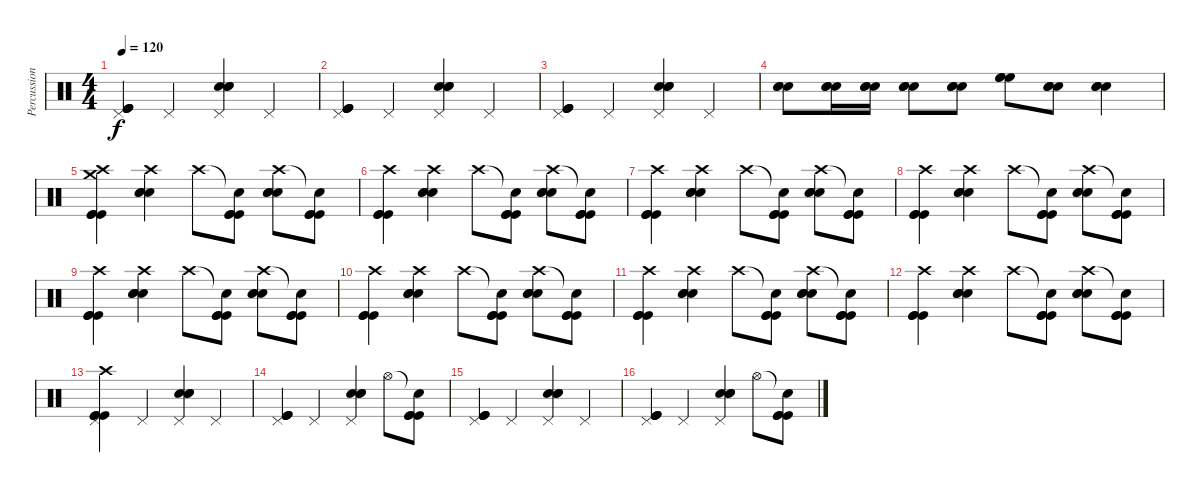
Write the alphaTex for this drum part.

\track ("Percussions" "Percussion") {instrument percussion}
\staff {score}
\articulation defaults
\ts (4 4)
\tempo 120
\clef neutral
\ks c
("Pedal Hi-Hat (hit)" "Kick (hit)" "Kick (hit)" "Kick (hit)").4{dy f} "Pedal Hi-Hat (hit)".4 ("Pedal Hi-Hat (hit)" "Snare (hit) 2" "Snare (hit) 2" "Snare (hit) 2").4 "Pedal Hi-Hat (hit)".4 |
("Pedal Hi-Hat (hit)" "Kick (hit)" "Kick (hit)" "Kick (hit)").4 "Pedal Hi-Hat (hit)".4 ("Pedal Hi-Hat (hit)" "Snare (hit) 2" "Snare (hit) 2" "Snare (hit) 2").4 "Pedal Hi-Hat (hit)".4 |
("Pedal Hi-Hat (hit)" "Kick (hit)" "Kick (hit)" "Kick (hit)").4 "Pedal Hi-Hat (hit)".4 ("Pedal Hi-Hat (hit)" "Snare (hit) 2" "Snare (hit) 2" "Snare (hit) 2").4 "Pedal Hi-Hat (hit)".4 |
("Snare (hit) 2" "Snare (hit) 2" "Snare (hit) 2").8 ("Snare (hit) 2" "Snare (hit) 2" "Snare (hit) 2").16 ("Snare (hit) 2" "Snare (hit) 2" "Snare (hit) 2").16 ("Snare (hit) 2" "Snare (hit) 2" "Snare (hit) 2").8 ("Snare (hit) 2" "Snare (hit) 2" "Snare (hit) 2").8 ("High Floor Tom (hit)" "High Floor Tom (hit)" "High Floor Tom (hit)").8 ("Snare (hit) 2" "Snare (hit) 2" "Snare (hit) 2").8 ("Snare (hit) 2" "Snare (hit) 2" "Snare (hit) 2").4 |
("Crash high (hit)" "Crash medium (hit)" "Kick (hit)" "Kick (hit)" "Kick (hit)").4 ("Crash high (hit)" "Snare (hit) 2" "Snare (hit) 2" "Snare (hit) 2").4 "Crash high (hit)".8 ("Snare (hit)"{t} "Kick (hit)" "Kick (hit)" "Kick (hit)").8 ("Crash high (hit)" "Snare (hit) 2" "Snare (hit) 2" "Snare (hit) 2").8 ("Snare (hit)"{t} "Kick (hit)" "Kick (hit)" "Kick (hit)").8 |
("Crash high (hit)" "Kick (hit)" "Kick (hit)" "Kick (hit)").4 ("Crash high (hit)" "Snare (hit) 2" "Snare (hit) 2" "Snare (hit) 2").4 "Crash high (hit)".8 ("Snare (hit)"{t} "Kick (hit)" "Kick (hit)" "Kick (hit)").8 ("Crash high (hit)" "Snare (hit) 2" "Snare (hit) 2" "Snare (hit) 2").8 ("Snare (hit)"{t} "Kick (hit)" "Kick (hit)" "Kick (hit)").8 |
("Crash high (hit)" "Kick (hit)" "Kick (hit)" "Kick (hit)").4 ("Crash high (hit)" "Snare (hit) 2" "Snare (hit) 2" "Snare (hit) 2").4 "Crash high (hit)".8 ("Snare (hit)"{t} "Kick (hit)" "Kick (hit)" "Kick (hit)").8 ("Crash high (hit)" "Snare (hit) 2" "Snare (hit) 2" "Snare (hit) 2").8 ("Snare (hit)"{t} "Kick (hit)" "Kick (hit)" "Kick (hit)").8 |
("Crash high (hit)" "Kick (hit)" "Kick (hit)" "Kick (hit)").4 ("Crash high (hit)" "Snare (hit) 2" "Snare (hit) 2" "Snare (hit) 2").4 "Crash high (hit)".8 ("Snare (hit)"{t} "Kick (hit)" "Kick (hit)" "Kick (hit)").8 ("Crash high (hit)" "Snare (hit) 2" "Snare (hit) 2" "Snare (hit) 2").8 ("Snare (hit)"{t} "Kick (hit)" "Kick (hit)" "Kick (hit)").8 |
("Crash high (hit)" "Kick (hit)" "Kick (hit)" "Kick (hit)").4 ("Crash high (hit)" "Snare (hit) 2" "Snare (hit) 2" "Snare (hit) 2").4 "Crash high (hit)".8 ("Snare (hit)"{t} "Kick (hit)" "Kick (hit)" "Kick (hit)").8 ("Crash high (hit)" "Snare (hit) 2" "Snare (hit) 2" "Snare (hit) 2").8 ("Snare (hit)"{t} "Kick (hit)" "Kick (hit)" "Kick (hit)").8 |
("Crash high (hit)" "Kick (hit)" "Kick (hit)" "Kick (hit)").4 ("Crash high (hit)" "Snare (hit) 2" "Snare (hit) 2" "Snare (hit) 2").4 "Crash high (hit)".8 ("Snare (hit)"{t} "Kick (hit)" "Kick (hit)" "Kick (hit)").8 ("Crash high (hit)" "Snare (hit) 2" "Snare (hit) 2" "Snare (hit) 2").8 ("Snare (hit)"{t} "Kick (hit)" "Kick (hit)" "Kick (hit)").8 |
("Crash high (hit)" "Kick (hit)" "Kick (hit)" "Kick (hit)").4 ("Crash high (hit)" "Snare (hit) 2" "Snare (hit) 2" "Snare (hit) 2").4 "Crash high (hit)".8 ("Snare (hit)"{t} "Kick (hit)" "Kick (hit)" "Kick (hit)").8 ("Crash high (hit)" "Snare (hit) 2" "Snare (hit) 2" "Snare (hit) 2").8 ("Snare (hit)"{t} "Kick (hit)" "Kick (hit)" "Kick (hit)").8 |
("Crash high (hit)" "Kick (hit)" "Kick (hit)" "Kick (hit)").4 ("Crash high (hit)" "Snare (hit) 2" "Snare (hit) 2" "Snare (hit) 2").4 "Crash high (hit)".8 ("Snare (hit)"{t} "Kick (hit)" "Kick (hit)" "Kick (hit)").8 ("Crash high (hit)" "Snare (hit) 2" "Snare (hit) 2" "Snare (hit) 2").8 ("Snare (hit)"{t} "Kick (hit)" "Kick (hit)" "Kick (hit)").8 |
("Pedal Hi-Hat (hit)" "Crash high (hit)" "Kick (hit)" "Kick (hit)" "Kick (hit)").4 "Pedal Hi-Hat (hit)".4 ("Pedal Hi-Hat (hit)" "Snare (hit) 2" "Snare (hit) 2" "Snare (hit) 2").4 "Pedal Hi-Hat (hit)".4 |
("Pedal Hi-Hat (hit)" "Kick (hit)" "Kick (hit)" "Kick (hit)").4 "Pedal Hi-Hat (hit)".4 ("Pedal Hi-Hat (hit)" "Snare (hit) 2" "Snare (hit) 2" "Snare (hit) 2").4 "Hi-Hat (open)".8 ("Snare (hit)"{t} "Kick (hit)" "Kick (hit)" "Kick (hit)").8 |
("Pedal Hi-Hat (hit)" "Kick (hit)" "Kick (hit)" "Kick (hit)").4 "Pedal Hi-Hat (hit)".4 ("Pedal Hi-Hat (hit)" "Snare (hit) 2" "Snare (hit) 2" "Snare (hit) 2").4 "Pedal Hi-Hat (hit)".4 |
("Pedal Hi-Hat (hit)" "Kick (hit)" "Kick (hit)" "Kick (hit)").4 "Pedal Hi-Hat (hit)".4 ("Pedal Hi-Hat (hit)" "Snare (hit) 2" "Snare (hit) 2" "Snare (hit) 2").4 "Hi-Hat (open)".8 ("Snare (hit)"{t} "Kick (hit)" "Kick (hit)" "Kick (hit)").8
